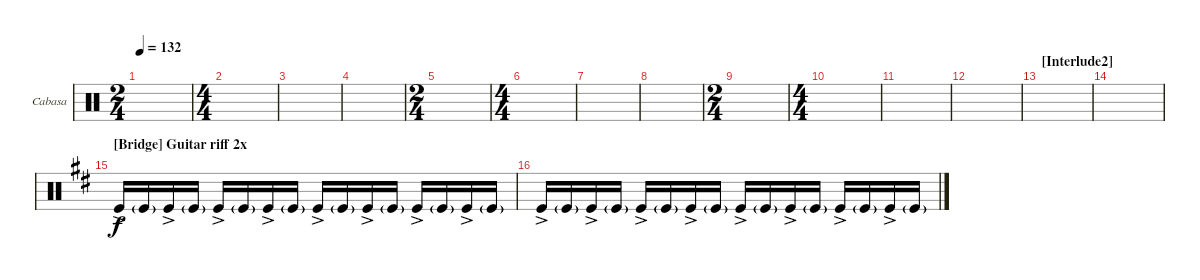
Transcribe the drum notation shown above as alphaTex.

\bracketExtendMode groupsimilarinstruments
\firstSystemTrackNameOrientation horizontal
\otherSystemsTrackNameOrientation horizontal
\track ("Cabasa" "Cabasa") {instrument percussion}
\staff {score}
\articulation defaults
\ts (2 4)
\tempo 132
\clef neutral
\ks aminor
|
\ts (4 4)
|
|
|
\ts (2 4)
|
\ts (4 4)
|
|
|
\ts (2 4)
|
\ts (4 4)
|
|
|
\section ("" "[Interlude2] ")
|
|
\section ("" "[Bridge] Guitar riff 2x")
\ks bminor "Kick (hit)"{ac}.16 "Kick (hit)"{g}.16 "Kick (hit)"{ac}.16 "Kick (hit)"{g}.16 "Kick (hit)"{ac}.16 "Kick (hit)"{g}.16 "Kick (hit)"{ac}.16 "Kick (hit)"{g}.16 "Kick (hit)"{ac}.16 "Kick (hit)"{g}.16 "Kick (hit)"{ac}.16 "Kick (hit)"{g}.16 "Kick (hit)"{ac}.16 "Kick (hit)"{g}.16 "Kick (hit)"{ac}.16 "Kick (hit)"{g}.16
|
"Kick (hit)"{ac}.16 "Kick (hit)"{g}.16 "Kick (hit)"{ac}.16 "Kick (hit)"{g}.16 "Kick (hit)"{ac}.16 "Kick (hit)"{g}.16 "Kick (hit)"{ac}.16 "Kick (hit)"{g}.16 "Kick (hit)"{ac}.16 "Kick (hit)"{g}.16 "Kick (hit)"{ac}.16 "Kick (hit)"{g}.16 "Kick (hit)"{ac}.16 "Kick (hit)"{g}.16 "Kick (hit)"{ac}.16 "Kick (hit)"{g}.16
